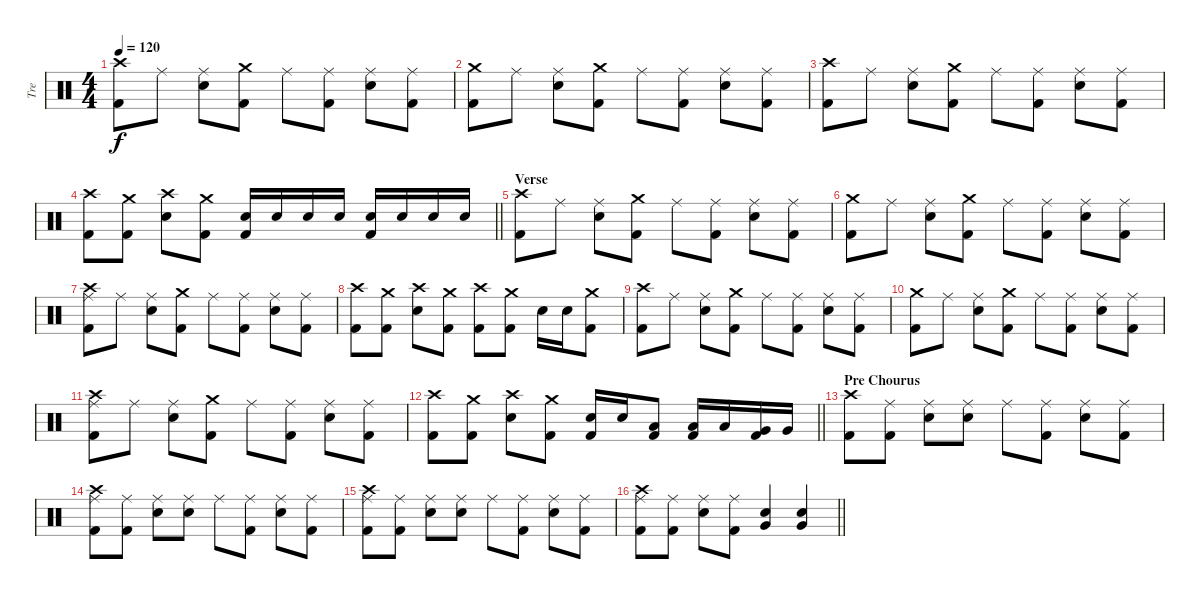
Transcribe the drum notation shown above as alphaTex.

\track ("Tre" "Tre") {instrument percussion}
\staff {score}
\articulation defaults
\ts (4 4)
\tempo 120
\clef neutral
\ks c
("Crash high (hit)" "Kick (hit) 2").8{dy f} "Ride (middle)".8 ("Ride (middle)" "Snare (hit) 2").8 ("Crash medium (hit)" "Kick (hit) 2").8 "Ride (middle)".8 ("Ride (middle)" "Kick (hit) 2").8 ("Ride (middle)" "Snare (hit) 2").8 ("Ride (middle)" "Kick (hit) 2").8 |
("Crash medium (hit)" "Kick (hit) 2").8 "Ride (middle)".8 ("Ride (middle)" "Snare (hit) 2").8 ("Crash medium (hit)" "Kick (hit) 2").8 "Ride (middle)".8 ("Ride (middle)" "Kick (hit) 2").8 ("Ride (middle)" "Snare (hit) 2").8 ("Ride (middle)" "Kick (hit) 2").8 |
("Crash high (hit)" "Kick (hit) 2").8 "Ride (middle)".8 ("Ride (middle)" "Snare (hit) 2").8 ("Crash medium (hit)" "Kick (hit) 2").8 "Ride (middle)".8 ("Ride (middle)" "Kick (hit) 2").8 ("Ride (middle)" "Snare (hit) 2").8 ("Ride (middle)" "Kick (hit) 2").8 |
\barLineRight lightlight
("Crash high (hit)" "Kick (hit) 2").8 ("Crash medium (hit)" "Kick (hit) 2").8 ("Crash high (hit)" "Snare (hit) 2").8 ("Crash medium (hit)" "Kick (hit) 2").8 ("Snare (hit) 2" "Kick (hit) 2").16 "Snare (hit) 2".16 "Snare (hit) 2".16 "Snare (hit) 2".16 ("Snare (hit) 2" "Kick (hit) 2").16 "Snare (hit) 2".16 "Snare (hit) 2".16 "Snare (hit) 2".16 |
\section ("" "Verse")
("Crash high (hit)" "Kick (hit) 2").8 "Ride (middle)".8 ("Ride (middle)" "Snare (hit) 2").8 ("Crash medium (hit)" "Kick (hit) 2").8 "Ride (middle)".8 ("Ride (middle)" "Kick (hit) 2").8 ("Ride (middle)" "Snare (hit) 2").8 ("Ride (middle)" "Kick (hit) 2").8 |
("Crash medium (hit)" "Kick (hit) 2").8 "Ride (middle)".8 ("Ride (middle)" "Snare (hit) 2").8 ("Crash medium (hit)" "Kick (hit) 2").8 "Ride (middle)".8 ("Ride (middle)" "Kick (hit) 2").8 ("Ride (middle)" "Snare (hit) 2").8 ("Ride (middle)" "Kick (hit) 2").8 |
("Crash high (hit)" "Ride (middle)" "Kick (hit) 2").8 "Ride (middle)".8 ("Ride (middle)" "Snare (hit) 2").8 ("Crash medium (hit)" "Kick (hit) 2").8 "Ride (middle)".8 ("Ride (middle)" "Kick (hit) 2").8 ("Ride (middle)" "Snare (hit) 2").8 ("Ride (middle)" "Kick (hit) 2").8 |
("Crash high (hit)" "Kick (hit) 2").8 ("Crash medium (hit)" "Kick (hit) 2").8 ("Crash high (hit)" "Snare (hit) 2").8 ("Crash medium (hit)" "Kick (hit) 2").8 ("Crash high (hit)" "Kick (hit) 2").8 ("Crash medium (hit)" "Kick (hit) 2").8 "Snare (hit) 2".16 "Snare (hit) 2".16 ("Crash medium (hit)" "Kick (hit) 2").8 |
("Crash high (hit)" "Kick (hit) 2").8 "Ride (middle)".8 ("Ride (middle)" "Snare (hit) 2").8 ("Crash medium (hit)" "Kick (hit) 2").8 "Ride (middle)".8 ("Ride (middle)" "Kick (hit) 2").8 ("Ride (middle)" "Snare (hit) 2").8 ("Ride (middle)" "Kick (hit) 2").8 |
("Crash medium (hit)" "Kick (hit) 2").8 "Ride (middle)".8 ("Ride (middle)" "Snare (hit) 2").8 ("Crash medium (hit)" "Kick (hit) 2").8 "Ride (middle)".8 ("Ride (middle)" "Kick (hit) 2").8 ("Ride (middle)" "Snare (hit) 2").8 ("Ride (middle)" "Kick (hit) 2").8 |
("Crash high (hit)" "Ride (middle)" "Kick (hit) 2").8 "Ride (middle)".8 ("Ride (middle)" "Snare (hit) 2").8 ("Crash medium (hit)" "Kick (hit) 2").8 "Ride (middle)".8 ("Ride (middle)" "Kick (hit) 2").8 ("Ride (middle)" "Snare (hit) 2").8 ("Ride (middle)" "Kick (hit) 2").8 |
\barLineRight lightlight
("Crash high (hit)" "Kick (hit) 2").8 ("Crash medium (hit)" "Kick (hit) 2").8 ("Crash high (hit)" "Snare (hit) 2").8 ("Crash medium (hit)" "Kick (hit) 2").8 ("Snare (hit) 2" "Kick (hit) 2").16 "Snare (hit) 2".16 ("Low Tom (hit)" "Kick (hit) 2").8 ("Low Tom (hit)" "Kick (hit) 2").16 "Low Tom (hit)".16 ("Very Low Tom (hit)" "Kick (hit) 2").16 "Very Low Tom (hit)".16 |
\section ("" "Pre Chourus")
("Crash high (hit)" "Kick (hit) 2").8 ("Ride (middle)" "Kick (hit) 2").8 ("Ride (middle)" "Snare (hit) 2").8 ("Ride (middle)" "Snare (hit) 2").8 "Ride (middle)".8 ("Ride (middle)" "Kick (hit) 2").8 ("Ride (middle)" "Snare (hit) 2").8 ("Ride (middle)" "Kick (hit) 2").8 |
("Crash high (hit)" "Ride (middle)" "Kick (hit) 2").8 ("Ride (middle)" "Kick (hit) 2").8 ("Ride (middle)" "Snare (hit) 2").8 ("Ride (middle)" "Snare (hit) 2").8 "Ride (middle)".8 ("Ride (middle)" "Kick (hit) 2").8 ("Ride (middle)" "Snare (hit) 2").8 ("Ride (middle)" "Kick (hit) 2").8 |
("Crash high (hit)" "Ride (middle)" "Kick (hit) 2").8 ("Ride (middle)" "Kick (hit) 2").8 ("Ride (middle)" "Snare (hit) 2").8 ("Ride (middle)" "Snare (hit) 2").8 "Ride (middle)".8 ("Ride (middle)" "Kick (hit) 2").8 ("Ride (middle)" "Snare (hit) 2").8 ("Ride (middle)" "Kick (hit) 2").8 |
\barLineRight lightlight
("Crash high (hit)" "Ride (middle)" "Kick (hit) 2").8 ("Ride (middle)" "Kick (hit) 2").8 ("Ride (middle)" "Snare (hit) 2").8 ("Ride (middle)" "Kick (hit) 2").8 ("Snare (hit) 2" "Very Low Tom (hit)").4 ("Snare (hit) 2" "Very Low Tom (hit)").4
